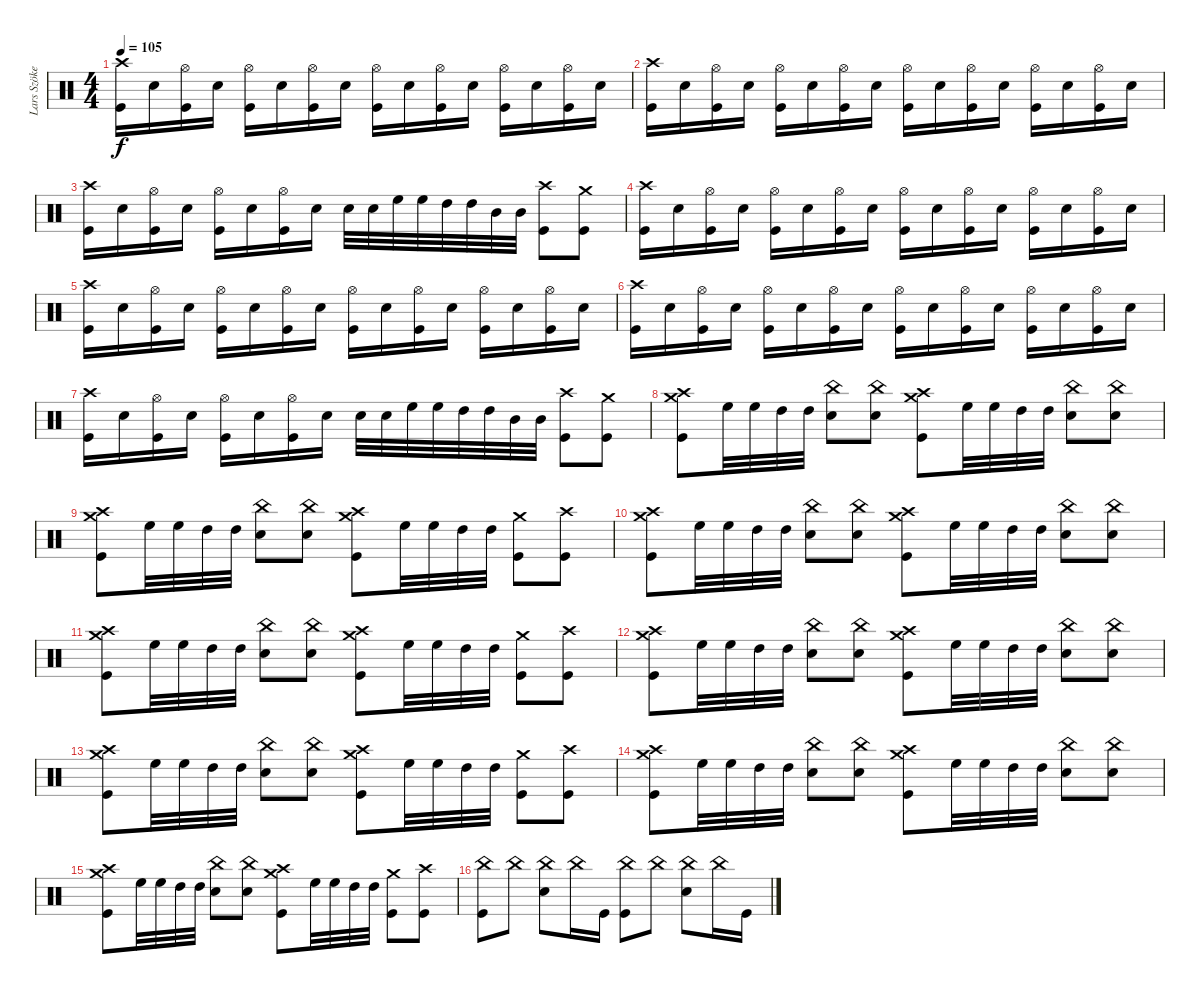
\track ("Lars Szöke" "Lars Szöke") {instrument percussion}
\staff {score}
\articulation defaults
\ts (4 4)
\tempo 105
\clef neutral
\ks c
("Crash high (hit)" "Kick (hit)").16{dy f} "Snare (hit) 2".16 ("Hi-Hat (open)" "Kick (hit)").16 "Snare (hit) 2".16 ("Hi-Hat (open)" "Kick (hit)").16 "Snare (hit) 2".16 ("Hi-Hat (open)" "Kick (hit)").16 "Snare (hit) 2".16 ("Hi-Hat (open)" "Kick (hit)").16 "Snare (hit) 2".16 ("Hi-Hat (open)" "Kick (hit)").16 "Snare (hit) 2".16 ("Hi-Hat (open)" "Kick (hit)").16 "Snare (hit) 2".16 ("Hi-Hat (open)" "Kick (hit)").16 "Snare (hit) 2".16 |
("Crash high (hit)" "Kick (hit)").16 "Snare (hit) 2".16 ("Hi-Hat (open)" "Kick (hit)").16 "Snare (hit) 2".16 ("Hi-Hat (open)" "Kick (hit)").16 "Snare (hit) 2".16 ("Hi-Hat (open)" "Kick (hit)").16 "Snare (hit) 2".16 ("Hi-Hat (open)" "Kick (hit)").16 "Snare (hit) 2".16 ("Hi-Hat (open)" "Kick (hit)").16 "Snare (hit) 2".16 ("Hi-Hat (open)" "Kick (hit)").16 "Snare (hit) 2".16 ("Hi-Hat (open)" "Kick (hit)").16 "Snare (hit) 2".16 |
("Crash high (hit)" "Kick (hit)").16 "Snare (hit) 2".16 ("Hi-Hat (open)" "Kick (hit)").16 "Snare (hit) 2".16 ("Hi-Hat (open)" "Kick (hit)").16 "Snare (hit) 2".16 ("Hi-Hat (open)" "Kick (hit)").16 "Snare (hit) 2".16 "Snare (hit) 2".32 "Snare (hit) 2".32 "High Floor Tom (hit)".32 "High Floor Tom (hit)".32 "High Tom (hit)".32 "High Tom (hit)".32 "Mid Tom (hit)".32 "Mid Tom (hit)".32 ("Crash high (hit)" "Kick (hit)").8 ("Crash medium (hit)" "Kick (hit)").8 |
("Crash high (hit)" "Kick (hit)").16 "Snare (hit) 2".16 ("Hi-Hat (open)" "Kick (hit)").16 "Snare (hit) 2".16 ("Hi-Hat (open)" "Kick (hit)").16 "Snare (hit) 2".16 ("Hi-Hat (open)" "Kick (hit)").16 "Snare (hit) 2".16 ("Hi-Hat (open)" "Kick (hit)").16 "Snare (hit) 2".16 ("Hi-Hat (open)" "Kick (hit)").16 "Snare (hit) 2".16 ("Hi-Hat (open)" "Kick (hit)").16 "Snare (hit) 2".16 ("Hi-Hat (open)" "Kick (hit)").16 "Snare (hit) 2".16 |
("Crash high (hit)" "Kick (hit)").16 "Snare (hit) 2".16 ("Hi-Hat (open)" "Kick (hit)").16 "Snare (hit) 2".16 ("Hi-Hat (open)" "Kick (hit)").16 "Snare (hit) 2".16 ("Hi-Hat (open)" "Kick (hit)").16 "Snare (hit) 2".16 ("Hi-Hat (open)" "Kick (hit)").16 "Snare (hit) 2".16 ("Hi-Hat (open)" "Kick (hit)").16 "Snare (hit) 2".16 ("Hi-Hat (open)" "Kick (hit)").16 "Snare (hit) 2".16 ("Hi-Hat (open)" "Kick (hit)").16 "Snare (hit) 2".16 |
("Crash high (hit)" "Kick (hit)").16 "Snare (hit) 2".16 ("Hi-Hat (open)" "Kick (hit)").16 "Snare (hit) 2".16 ("Hi-Hat (open)" "Kick (hit)").16 "Snare (hit) 2".16 ("Hi-Hat (open)" "Kick (hit)").16 "Snare (hit) 2".16 ("Hi-Hat (open)" "Kick (hit)").16 "Snare (hit) 2".16 ("Hi-Hat (open)" "Kick (hit)").16 "Snare (hit) 2".16 ("Hi-Hat (open)" "Kick (hit)").16 "Snare (hit) 2".16 ("Hi-Hat (open)" "Kick (hit)").16 "Snare (hit) 2".16 |
("Crash high (hit)" "Kick (hit)").16 "Snare (hit) 2".16 ("Hi-Hat (open)" "Kick (hit)").16 "Snare (hit) 2".16 ("Hi-Hat (open)" "Kick (hit)").16 "Snare (hit) 2".16 ("Hi-Hat (open)" "Kick (hit)").16 "Snare (hit) 2".16 "Snare (hit) 2".32 "Snare (hit) 2".32 "High Floor Tom (hit)".32 "High Floor Tom (hit)".32 "High Tom (hit)".32 "High Tom (hit)".32 "Mid Tom (hit)".32 "Mid Tom (hit)".32 ("Crash high (hit)" "Kick (hit)").8 ("Crash medium (hit)" "Kick (hit)").8 |
("Crash medium (hit)" "Crash high (hit)" "Kick (hit)").8 "High Floor Tom (hit)".32 "High Floor Tom (hit)".32 "High Tom (hit)".32 "High Tom (hit)".32 ("China (hit)" "Snare (hit) 2").8 ("China (hit)" "Snare (hit) 2").8 ("Crash medium (hit)" "Crash high (hit)" "Kick (hit)").8 "High Floor Tom (hit)".32 "High Floor Tom (hit)".32 "High Tom (hit)".32 "High Tom (hit)".32 ("China (hit)" "Snare (hit) 2").8 ("China (hit)" "Snare (hit) 2").8 |
("Crash medium (hit)" "Crash high (hit)" "Kick (hit)").8 "High Floor Tom (hit)".32 "High Floor Tom (hit)".32 "High Tom (hit)".32 "High Tom (hit)".32 ("China (hit)" "Snare (hit) 2").8 ("China (hit)" "Snare (hit) 2").8 ("Crash medium (hit)" "Crash high (hit)" "Kick (hit)").8 "High Floor Tom (hit)".32 "High Floor Tom (hit)".32 "High Tom (hit)".32 "High Tom (hit)".32 ("Crash medium (hit)" "Kick (hit)").8 ("Crash high (hit)" "Kick (hit)").8 |
("Crash medium (hit)" "Crash high (hit)" "Kick (hit)").8 "High Floor Tom (hit)".32 "High Floor Tom (hit)".32 "High Tom (hit)".32 "High Tom (hit)".32 ("China (hit)" "Snare (hit) 2").8 ("China (hit)" "Snare (hit) 2").8 ("Crash medium (hit)" "Crash high (hit)" "Kick (hit)").8 "High Floor Tom (hit)".32 "High Floor Tom (hit)".32 "High Tom (hit)".32 "High Tom (hit)".32 ("China (hit)" "Snare (hit) 2").8 ("China (hit)" "Snare (hit) 2").8 |
("Crash medium (hit)" "Crash high (hit)" "Kick (hit)").8 "High Floor Tom (hit)".32 "High Floor Tom (hit)".32 "High Tom (hit)".32 "High Tom (hit)".32 ("China (hit)" "Snare (hit) 2").8 ("China (hit)" "Snare (hit) 2").8 ("Crash medium (hit)" "Crash high (hit)" "Kick (hit)").8 "High Floor Tom (hit)".32 "High Floor Tom (hit)".32 "High Tom (hit)".32 "High Tom (hit)".32 ("Crash medium (hit)" "Kick (hit)").8 ("Crash high (hit)" "Kick (hit)").8 |
("Crash medium (hit)" "Crash high (hit)" "Kick (hit)").8 "High Floor Tom (hit)".32 "High Floor Tom (hit)".32 "High Tom (hit)".32 "High Tom (hit)".32 ("China (hit)" "Snare (hit) 2").8 ("China (hit)" "Snare (hit) 2").8 ("Crash medium (hit)" "Crash high (hit)" "Kick (hit)").8 "High Floor Tom (hit)".32 "High Floor Tom (hit)".32 "High Tom (hit)".32 "High Tom (hit)".32 ("China (hit)" "Snare (hit) 2").8 ("China (hit)" "Snare (hit) 2").8 |
("Crash medium (hit)" "Crash high (hit)" "Kick (hit)").8 "High Floor Tom (hit)".32 "High Floor Tom (hit)".32 "High Tom (hit)".32 "High Tom (hit)".32 ("China (hit)" "Snare (hit) 2").8 ("China (hit)" "Snare (hit) 2").8 ("Crash medium (hit)" "Crash high (hit)" "Kick (hit)").8 "High Floor Tom (hit)".32 "High Floor Tom (hit)".32 "High Tom (hit)".32 "High Tom (hit)".32 ("Crash medium (hit)" "Kick (hit)").8 ("Crash high (hit)" "Kick (hit)").8 |
("Crash medium (hit)" "Crash high (hit)" "Kick (hit)").8 "High Floor Tom (hit)".32 "High Floor Tom (hit)".32 "High Tom (hit)".32 "High Tom (hit)".32 ("China (hit)" "Snare (hit) 2").8 ("China (hit)" "Snare (hit) 2").8 ("Crash medium (hit)" "Crash high (hit)" "Kick (hit)").8 "High Floor Tom (hit)".32 "High Floor Tom (hit)".32 "High Tom (hit)".32 "High Tom (hit)".32 ("China (hit)" "Snare (hit) 2").8 ("China (hit)" "Snare (hit) 2").8 |
("Crash medium (hit)" "Crash high (hit)" "Kick (hit)").8 "High Floor Tom (hit)".32 "High Floor Tom (hit)".32 "High Tom (hit)".32 "High Tom (hit)".32 ("China (hit)" "Snare (hit) 2").8 ("China (hit)" "Snare (hit) 2").8 ("Crash medium (hit)" "Crash high (hit)" "Kick (hit)").8 "High Floor Tom (hit)".32 "High Floor Tom (hit)".32 "High Tom (hit)".32 "High Tom (hit)".32 ("Crash medium (hit)" "Kick (hit)").8 ("Crash high (hit)" "Kick (hit)").8 |
("China (hit)" "Kick (hit)").8 "China (hit)".8 ("China (hit)" "Snare (hit) 2").8 "China (hit)".16 "Kick (hit)".16 ("China (hit)" "Kick (hit)").8 "China (hit)".8 ("China (hit)" "Snare (hit) 2").8 "China (hit)".16 "Kick (hit)".16
